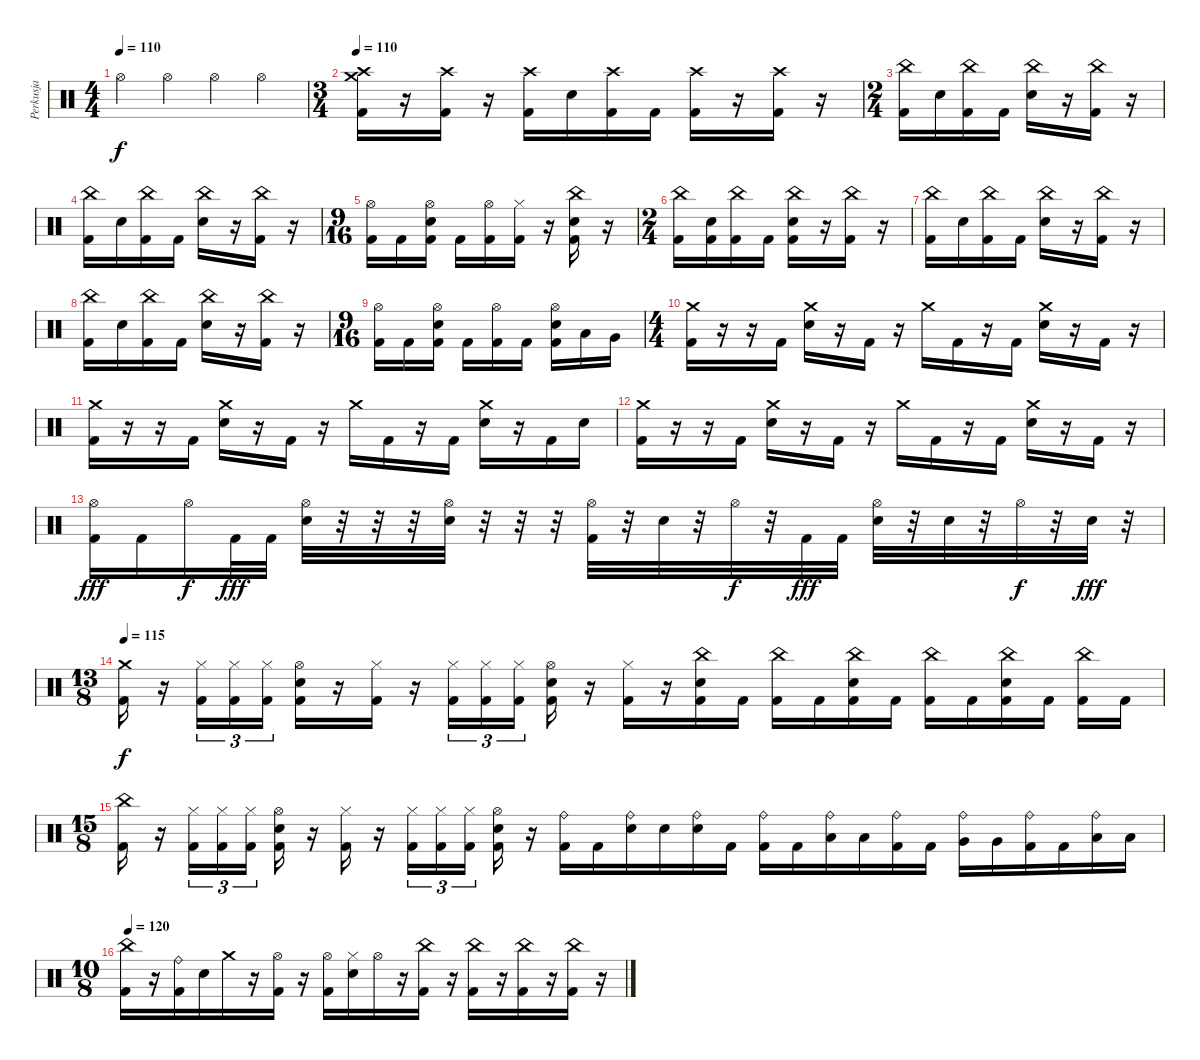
\track ("Perkusja" "Perkusja") {instrument percussion}
\staff {score}
\articulation defaults
\ts (4 4)
\tempo 110
\clef neutral
\ks c "Hi-Hat (open)".4{dy f} "Hi-Hat (open)".4 "Hi-Hat (open)".4 "Hi-Hat (open)".4
|
\ts (3 4)
\tempo 110
("Crash high (hit)" "Crash medium (hit)" "Kick (hit) 2").16 r.16 ("Crash high (hit)" "Kick (hit) 2").16 r.16 ("Crash high (hit)" "Kick (hit) 2").16 "Electric Snare (hit)".16 ("Crash high (hit)" "Kick (hit) 2").16 "Kick (hit) 2".16 ("Crash high (hit)" "Kick (hit) 2").16 r.16 ("Crash high (hit)" "Kick (hit) 2").16 r.16 |
\ts (2 4)
("China (hit)" "Kick (hit) 2").16 "Electric Snare (hit)".16 ("China (hit)" "Kick (hit) 2").16 "Kick (hit) 2".16 ("China (hit)" "Electric Snare (hit)").16 r.16 ("China (hit)" "Kick (hit) 2").16 r.16 |
("China (hit)" "Kick (hit) 2").16 "Electric Snare (hit)".16 ("China (hit)" "Kick (hit) 2").16 "Kick (hit) 2".16 ("China (hit)" "Electric Snare (hit)").16 r.16 ("China (hit)" "Kick (hit) 2").16 r.16 |
\ts (9 16)
("Hi-Hat (open)" "Kick (hit) 2").16 "Kick (hit) 2".16 ("Hi-Hat (open)" "Electric Snare (hit)" "Kick (hit) 2").16 "Kick (hit) 2".16 ("Hi-Hat (open)" "Kick (hit) 2").16 ("Hi-Hat (closed)" "Kick (hit) 2").16 r.16 ("China (hit)" "Electric Snare (hit)" "Kick (hit) 2").16 r.16 |
\ts (2 4)
("China (hit)" "Kick (hit) 2").16 ("Electric Snare (hit)" "Kick (hit) 2").16 ("China (hit)" "Kick (hit) 2").16 "Kick (hit) 2".16 ("China (hit)" "Electric Snare (hit)" "Kick (hit) 2").16 r.16 ("China (hit)" "Kick (hit) 2").16 r.16 |
("China (hit)" "Kick (hit) 2").16 "Electric Snare (hit)".16 ("China (hit)" "Kick (hit) 2").16 "Kick (hit) 2".16 ("China (hit)" "Electric Snare (hit)").16 r.16 ("China (hit)" "Kick (hit) 2").16 r.16 |
("China (hit)" "Kick (hit) 2").16 "Electric Snare (hit)".16 ("China (hit)" "Kick (hit) 2").16 "Kick (hit) 2".16 ("China (hit)" "Electric Snare (hit)").16 r.16 ("China (hit)" "Kick (hit) 2").16 r.16 |
\ts (9 16)
("Hi-Hat (open)" "Kick (hit) 2").16 "Kick (hit) 2".16 ("Hi-Hat (open)" "Electric Snare (hit)" "Kick (hit) 2").16 "Kick (hit) 2".16 ("Hi-Hat (open)" "Kick (hit) 2").16 "Kick (hit) 2".16 ("Hi-Hat (open)" "Electric Snare (hit)" "Kick (hit) 2").16 "Low Tom (hit)".16 "Very Low Tom (hit)".16 |
\ts (4 4)
("Crash medium (hit)" "Kick (hit) 2").16 r.16 r.16 "Kick (hit) 2".16 ("Crash medium (hit)" "Electric Snare (hit)").16 r.16 "Kick (hit) 2".16 r.16 "Crash medium (hit)".16 "Kick (hit) 2".16 r.16 "Kick (hit) 2".16 ("Crash medium (hit)" "Electric Snare (hit)").16 r.16 "Kick (hit) 2".16 r.16 |
("Crash medium (hit)" "Kick (hit) 2").16 r.16 r.16 "Kick (hit) 2".16 ("Crash medium (hit)" "Electric Snare (hit)").16 r.16 "Kick (hit) 2".16 r.16 "Crash medium (hit)".16 "Kick (hit) 2".16 r.16 "Kick (hit) 2".16 ("Crash medium (hit)" "Electric Snare (hit)").16 r.16 "Kick (hit) 2".16 "Electric Snare (hit)".16 |
("Crash medium (hit)" "Kick (hit) 2").16 r.16 r.16 "Kick (hit) 2".16 ("Crash medium (hit)" "Electric Snare (hit)").16 r.16 "Kick (hit) 2".16 r.16 "Crash medium (hit)".16 "Kick (hit) 2".16 r.16 "Kick (hit) 2".16 ("Crash medium (hit)" "Electric Snare (hit)").16 r.16 "Kick (hit) 2".16 r.16 |
("Hi-Hat (open)" "Kick (hit) 2").16{dy fff} "Kick (hit) 2".16 "Hi-Hat (open)".16{dy f} "Kick (hit) 2".32{dy fff} "Kick (hit) 2".32 ("Hi-Hat (open)" "Electric Snare (hit)").32 r.32 r.32 r.32 ("Hi-Hat (open)" "Electric Snare (hit)").32 r.32 r.32 r.32 ("Hi-Hat (open)" "Kick (hit) 2").32 r.32 "Electric Snare (hit)".32 r.32 "Hi-Hat (open)".32{dy f} r.32 "Kick (hit) 2".32{dy fff} "Kick (hit) 2".32 ("Hi-Hat (open)" "Electric Snare (hit)").32 r.32 "Electric Snare (hit)".32 r.32 "Hi-Hat (open)".32{dy f} r.32 "Electric Snare (hit)".32{dy fff} r.32 |
\ts (13 8)
\tempo 115
("Crash medium (hit)" "Kick (hit) 2").16{dy f} r.16 ("Hi-Hat (closed)" "Kick (hit) 2").16{tu (3 2)} ("Hi-Hat (closed)" "Kick (hit) 2").16{tu (3 2)} ("Hi-Hat (closed)" "Kick (hit) 2").16{tu (3 2)} ("Hi-Hat (open)" "Electric Snare (hit)" "Kick (hit) 2").16 r.16 ("Hi-Hat (closed)" "Kick (hit) 2").16 r.16 ("Hi-Hat (closed)" "Kick (hit) 2").16{tu (3 2)} ("Hi-Hat (closed)" "Kick (hit) 2").16{tu (3 2)} ("Hi-Hat (closed)" "Kick (hit) 2").16{tu (3 2)} ("Hi-Hat (open)" "Electric Snare (hit)" "Kick (hit) 2").16 r.16 ("Hi-Hat (closed)" "Kick (hit) 2").16 r.16 ("China (hit)" "Electric Snare (hit)" "Kick (hit) 2").16 "Kick (hit) 2".16 ("China (hit)" "Kick (hit) 2").16 "Kick (hit) 2".16 ("China (hit)" "Electric Snare (hit)" "Kick (hit) 2").16 "Kick (hit) 2".16 ("China (hit)" "Kick (hit) 2").16 "Kick (hit) 2".16 ("China (hit)" "Electric Snare (hit)" "Kick (hit) 2").16 "Kick (hit) 2".16 ("China (hit)" "Kick (hit) 2").16 "Kick (hit) 2".16 |
\ts (15 8)
("China (hit)" "Kick (hit) 2").16 r.16 ("Hi-Hat (closed)" "Kick (hit) 2").16{tu (3 2)} ("Hi-Hat (closed)" "Kick (hit) 2").16{tu (3 2)} ("Hi-Hat (closed)" "Kick (hit) 2").16{tu (3 2)} ("Hi-Hat (open)" "Electric Snare (hit)" "Kick (hit) 2").16 r.16 ("Hi-Hat (closed)" "Kick (hit) 2").16 r.16 ("Hi-Hat (closed)" "Kick (hit) 2").16{tu (3 2)} ("Hi-Hat (closed)" "Kick (hit) 2").16{tu (3 2)} ("Hi-Hat (closed)" "Kick (hit) 2").16{tu (3 2)} ("Hi-Hat (open)" "Electric Snare (hit)" "Kick (hit) 2").16 r.16 ("Ride (bell)" "Kick (hit) 2").16 "Kick (hit) 2".16 ("Ride (bell)" "Electric Snare (hit)").16 "Electric Snare (hit)".16 ("Ride (bell)" "Electric Snare (hit)").16 "Kick (hit) 2".16 ("Ride (bell)" "Kick (hit) 2").16 "Kick (hit) 2".16 ("Ride (bell)" "Low Tom (hit)").16 "Low Tom (hit)".16 ("Ride (bell)" "Kick (hit) 2").16 "Kick (hit) 2".16 ("Ride (bell)" "Very Low Tom (hit)").16 "Very Low Tom (hit)".16 ("Ride (bell)" "Kick (hit) 2").16 "Kick (hit) 2".16 ("Ride (bell)" "Low Floor Tom (hit)").16 "Low Floor Tom (hit)".16 |
\ts (10 8)
\tempo 120
("China (hit)" "Kick (hit) 2").16 r.16 ("Ride (bell)" "Kick (hit) 2").16 "Electric Snare (hit)".16 "Crash medium (hit)".16 r.16 ("Hi-Hat (open)" "Kick (hit) 2").16 r.16 ("Hi-Hat (open)" "Kick (hit) 2").16 ("Hi-Hat (closed)" "Electric Snare (hit)").16 "Hi-Hat (open)".16 r.16 ("China (hit)" "Kick (hit) 2").16 r.16 ("China (hit)" "Kick (hit) 2").16 r.16 ("China (hit)" "Kick (hit) 2").16 r.16 ("China (hit)" "Kick (hit) 2").16 r.16
